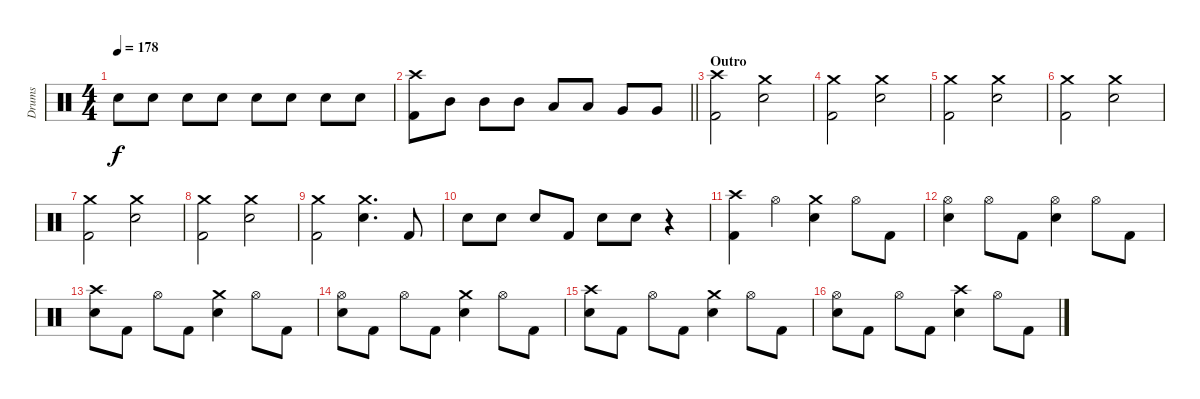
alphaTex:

\track ("Drums" "Drums") {instrument percussion}
\staff {score}
\articulation defaults
\ts (4 4)
\tempo 178
\clef neutral
\ks c "Snare (hit) 2".8{dy f} "Snare (hit) 2".8 "Snare (hit) 2".8 "Snare (hit) 2".8 "Snare (hit) 2".8 "Snare (hit) 2".8 "Snare (hit) 2".8 "Snare (hit) 2".8
|
\barLineRight lightlight
("Crash high (hit)" "Kick (hit) 2").8 "Mid Tom (hit)".8 "Mid Tom (hit)".8 "Mid Tom (hit)".8 "Low Tom (hit)".8 "Low Tom (hit)".8 "Very Low Tom (hit)".8 "Very Low Tom (hit)".8 |
\section ("" "Outro")
("Crash high (hit)" "Kick (hit) 2").2 ("Crash medium (hit)" "Snare (hit) 2").2 |
("Crash medium (hit)" "Kick (hit) 2").2 ("Crash medium (hit)" "Snare (hit) 2").2 |
("Crash medium (hit)" "Kick (hit) 2").2 ("Crash medium (hit)" "Snare (hit) 2").2 |
("Crash medium (hit)" "Kick (hit) 2").2 ("Crash medium (hit)" "Snare (hit) 2").2 |
("Crash medium (hit)" "Kick (hit) 2").2 ("Crash medium (hit)" "Snare (hit) 2").2 |
("Crash medium (hit)" "Kick (hit) 2").2 ("Crash medium (hit)" "Snare (hit) 2").2 |
("Crash medium (hit)" "Kick (hit) 2").2 ("Crash medium (hit)" "Snare (hit) 2").4{d} "Kick (hit) 2".8 |
"Snare (hit) 2".8 "Snare (hit) 2".8 "Snare (hit) 2".8 "Kick (hit) 2".8 "Snare (hit) 2".8 "Snare (hit) 2".8 r.4 |
("Crash high (hit)" "Kick (hit) 2").4 "Hi-Hat (open)".4 ("Crash medium (hit)" "Snare (hit) 2").4 "Hi-Hat (open)".8 "Kick (hit) 2".8 |
("Hi-Hat (open)" "Snare (hit) 2").4 "Hi-Hat (open)".8 "Kick (hit) 2".8 ("Hi-Hat (open)" "Snare (hit) 2").4 "Hi-Hat (open)".8 "Kick (hit) 2".8 |
("Crash high (hit)" "Snare (hit) 2").8 "Kick (hit) 2".8 "Hi-Hat (open)".8 "Kick (hit) 2".8 ("Crash medium (hit)" "Snare (hit) 2").4 "Hi-Hat (open)".8 "Kick (hit) 2".8 |
("Hi-Hat (open)" "Snare (hit) 2").8 "Kick (hit) 2".8 "Hi-Hat (open)".8 "Kick (hit) 2".8 ("Crash medium (hit)" "Snare (hit) 2").4 "Hi-Hat (open)".8 "Kick (hit) 2".8 |
("Crash high (hit)" "Snare (hit) 2").8 "Kick (hit) 2".8 "Hi-Hat (open)".8 "Kick (hit) 2".8 ("Crash medium (hit)" "Snare (hit) 2").4 "Hi-Hat (open)".8 "Kick (hit) 2".8 |
("Hi-Hat (open)" "Snare (hit) 2").8 "Kick (hit) 2".8 "Hi-Hat (open)".8 "Kick (hit) 2".8 ("Crash high (hit)" "Snare (hit) 2").4 "Hi-Hat (open)".8 "Kick (hit) 2".8
